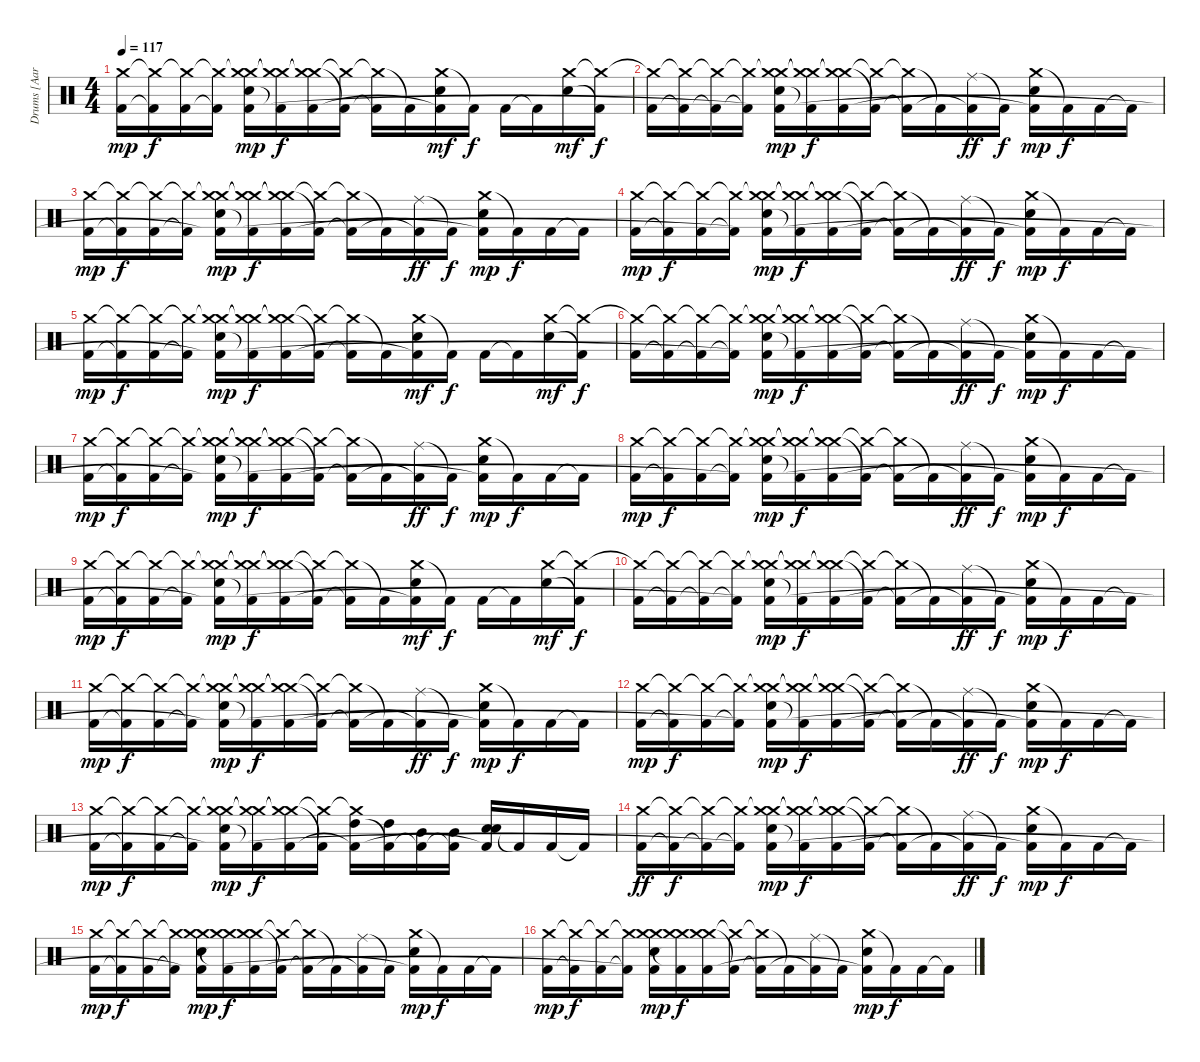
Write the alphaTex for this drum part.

\track ("Drums [Aaron Harris]" "Drums [Aar") {instrument percussion}
\staff {score}
\articulation defaults
\ts (4 4)
\tempo 117
\clef neutral
\ks c
("Crash medium (hit)" "Kick (hit) 2").16{dy mp} ("Crash medium (hit)"{t} "Kick (hit) 2"{t}).16{dy f} ("Crash medium (hit)"{t} "Kick (hit) 2").16 ("Crash medium (hit)"{t} "Kick (hit) 2"{t}).16 ("Crash medium (hit)"{t} "Crash medium (hit)" "Electric Snare (hit)" "Kick (hit) 2"{t}).16{dy mp} ("Crash medium (hit)"{t} "Crash medium (hit)"{t} "Kick (hit) 2"{t}).16{dy f} ("Crash medium (hit)"{t} "Crash medium (hit)"{t} "Kick (hit) 2").16 ("Crash medium (hit)"{t} "Kick (hit) 2"{t}).16 ("Crash medium (hit)"{t} "Kick (hit) 2"{t}).16 "Kick (hit) 2"{t}.16 ("Crash medium (hit)" "Electric Snare (hit)" "Kick (hit) 2"{t}).16{dy mf} "Kick (hit) 2"{t}.16{dy f} "Kick (hit) 2".16 "Kick (hit) 2"{t}.16 ("Crash medium (hit)" "Electric Snare (hit)").16{dy mf} ("Crash medium (hit)"{t} "Kick (hit) 2"{t}).16{dy f} |
("Crash medium (hit)"{t} "Kick (hit) 2").16 ("Crash medium (hit)"{t} "Kick (hit) 2"{t}).16 ("Crash medium (hit)"{t} "Kick (hit) 2"{t}).16 ("Crash medium (hit)"{t} "Kick (hit) 2"{t}).16 ("Crash medium (hit)"{t} "Crash medium (hit)" "Electric Snare (hit)" "Kick (hit) 2"{t}).16{dy mp} ("Crash medium (hit)"{t} "Crash medium (hit)"{t} "Kick (hit) 2"{t}).16{dy f} ("Crash medium (hit)"{t} "Crash medium (hit)"{t} "Kick (hit) 2").16 ("Crash medium (hit)"{t} "Kick (hit) 2"{t}).16 ("Crash medium (hit)"{t} "Kick (hit) 2"{t}).16 "Kick (hit) 2"{t}.16 ("Ride (middle)" "Kick (hit) 2"{t}).16{dy ff} "Kick (hit) 2"{t}.16{dy f} ("Crash medium (hit)" "Electric Snare (hit)" "Kick (hit) 2"{t}).16{dy mp} "Kick (hit) 2"{t}.16{dy f} "Kick (hit) 2".16 "Kick (hit) 2"{t}.16 |
("Crash medium (hit)" "Kick (hit) 2").16{dy mp} ("Crash medium (hit)"{t} "Kick (hit) 2"{t}).16{dy f} ("Crash medium (hit)"{t} "Kick (hit) 2").16 ("Crash medium (hit)"{t} "Kick (hit) 2"{t}).16 ("Crash medium (hit)"{t} "Crash medium (hit)" "Electric Snare (hit)" "Kick (hit) 2"{t}).16{dy mp} ("Crash medium (hit)"{t} "Crash medium (hit)"{t} "Kick (hit) 2"{t}).16{dy f} ("Crash medium (hit)"{t} "Crash medium (hit)"{t} "Kick (hit) 2").16 ("Crash medium (hit)"{t} "Kick (hit) 2"{t}).16 ("Crash medium (hit)"{t} "Kick (hit) 2"{t}).16 "Kick (hit) 2"{t}.16 ("Ride (middle)" "Kick (hit) 2"{t}).16{dy ff} "Kick (hit) 2"{t}.16{dy f} ("Crash medium (hit)" "Electric Snare (hit)" "Kick (hit) 2"{t}).16{dy mp} "Kick (hit) 2"{t}.16{dy f} "Kick (hit) 2".16 "Kick (hit) 2"{t}.16 |
("Crash medium (hit)" "Kick (hit) 2").16{dy mp} ("Crash medium (hit)"{t} "Kick (hit) 2"{t}).16{dy f} ("Crash medium (hit)"{t} "Kick (hit) 2").16 ("Crash medium (hit)"{t} "Kick (hit) 2"{t}).16 ("Crash medium (hit)"{t} "Crash medium (hit)" "Electric Snare (hit)" "Kick (hit) 2"{t}).16{dy mp} ("Crash medium (hit)"{t} "Crash medium (hit)"{t} "Kick (hit) 2"{t}).16{dy f} ("Crash medium (hit)"{t} "Crash medium (hit)"{t} "Kick (hit) 2").16 ("Crash medium (hit)"{t} "Kick (hit) 2"{t}).16 ("Crash medium (hit)"{t} "Kick (hit) 2"{t}).16 "Kick (hit) 2"{t}.16 ("Ride (middle)" "Kick (hit) 2"{t}).16{dy ff} "Kick (hit) 2"{t}.16{dy f} ("Crash medium (hit)" "Electric Snare (hit)" "Kick (hit) 2"{t}).16{dy mp} "Kick (hit) 2"{t}.16{dy f} "Kick (hit) 2".16 "Kick (hit) 2"{t}.16 |
("Crash medium (hit)" "Kick (hit) 2").16{dy mp} ("Crash medium (hit)"{t} "Kick (hit) 2"{t}).16{dy f} ("Crash medium (hit)"{t} "Kick (hit) 2").16 ("Crash medium (hit)"{t} "Kick (hit) 2"{t}).16 ("Crash medium (hit)"{t} "Crash medium (hit)" "Electric Snare (hit)" "Kick (hit) 2"{t}).16{dy mp} ("Crash medium (hit)"{t} "Crash medium (hit)"{t} "Kick (hit) 2"{t}).16{dy f} ("Crash medium (hit)"{t} "Crash medium (hit)"{t} "Kick (hit) 2").16 ("Crash medium (hit)"{t} "Kick (hit) 2"{t}).16 ("Crash medium (hit)"{t} "Kick (hit) 2"{t}).16 "Kick (hit) 2"{t}.16 ("Crash medium (hit)" "Electric Snare (hit)" "Kick (hit) 2"{t}).16{dy mf} "Kick (hit) 2"{t}.16{dy f} "Kick (hit) 2".16 "Kick (hit) 2"{t}.16 ("Crash medium (hit)" "Electric Snare (hit)").16{dy mf} ("Crash medium (hit)"{t} "Kick (hit) 2"{t}).16{dy f} |
("Crash medium (hit)"{t} "Kick (hit) 2").16 ("Crash medium (hit)"{t} "Kick (hit) 2"{t}).16 ("Crash medium (hit)"{t} "Kick (hit) 2"{t}).16 ("Crash medium (hit)"{t} "Kick (hit) 2"{t}).16 ("Crash medium (hit)"{t} "Crash medium (hit)" "Electric Snare (hit)" "Kick (hit) 2"{t}).16{dy mp} ("Crash medium (hit)"{t} "Crash medium (hit)"{t} "Kick (hit) 2"{t}).16{dy f} ("Crash medium (hit)"{t} "Crash medium (hit)"{t} "Kick (hit) 2").16 ("Crash medium (hit)"{t} "Kick (hit) 2"{t}).16 ("Crash medium (hit)"{t} "Kick (hit) 2"{t}).16 "Kick (hit) 2"{t}.16 ("Ride (middle)" "Kick (hit) 2"{t}).16{dy ff} "Kick (hit) 2"{t}.16{dy f} ("Crash medium (hit)" "Electric Snare (hit)" "Kick (hit) 2"{t}).16{dy mp} "Kick (hit) 2"{t}.16{dy f} "Kick (hit) 2".16 "Kick (hit) 2"{t}.16 |
("Crash medium (hit)" "Kick (hit) 2").16{dy mp} ("Crash medium (hit)"{t} "Kick (hit) 2"{t}).16{dy f} ("Crash medium (hit)"{t} "Kick (hit) 2").16 ("Crash medium (hit)"{t} "Kick (hit) 2"{t}).16 ("Crash medium (hit)"{t} "Crash medium (hit)" "Electric Snare (hit)" "Kick (hit) 2"{t}).16{dy mp} ("Crash medium (hit)"{t} "Crash medium (hit)"{t} "Kick (hit) 2"{t}).16{dy f} ("Crash medium (hit)"{t} "Crash medium (hit)"{t} "Kick (hit) 2").16 ("Crash medium (hit)"{t} "Kick (hit) 2"{t}).16 ("Crash medium (hit)"{t} "Kick (hit) 2"{t}).16 "Kick (hit) 2"{t}.16 ("Ride (middle)" "Kick (hit) 2"{t}).16{dy ff} "Kick (hit) 2"{t}.16{dy f} ("Crash medium (hit)" "Electric Snare (hit)" "Kick (hit) 2"{t}).16{dy mp} "Kick (hit) 2"{t}.16{dy f} "Kick (hit) 2".16 "Kick (hit) 2"{t}.16 |
("Crash medium (hit)" "Kick (hit) 2").16{dy mp} ("Crash medium (hit)"{t} "Kick (hit) 2"{t}).16{dy f} ("Crash medium (hit)"{t} "Kick (hit) 2").16 ("Crash medium (hit)"{t} "Kick (hit) 2"{t}).16 ("Crash medium (hit)"{t} "Crash medium (hit)" "Electric Snare (hit)" "Kick (hit) 2"{t}).16{dy mp} ("Crash medium (hit)"{t} "Crash medium (hit)"{t} "Kick (hit) 2"{t}).16{dy f} ("Crash medium (hit)"{t} "Crash medium (hit)"{t} "Kick (hit) 2").16 ("Crash medium (hit)"{t} "Kick (hit) 2"{t}).16 ("Crash medium (hit)"{t} "Kick (hit) 2"{t}).16 "Kick (hit) 2"{t}.16 ("Ride (middle)" "Kick (hit) 2"{t}).16{dy ff} "Kick (hit) 2"{t}.16{dy f} ("Crash medium (hit)" "Electric Snare (hit)" "Kick (hit) 2"{t}).16{dy mp} "Kick (hit) 2"{t}.16{dy f} "Kick (hit) 2".16 "Kick (hit) 2"{t}.16 |
("Crash medium (hit)" "Kick (hit) 2").16{dy mp} ("Crash medium (hit)"{t} "Kick (hit) 2"{t}).16{dy f} ("Crash medium (hit)"{t} "Kick (hit) 2").16 ("Crash medium (hit)"{t} "Kick (hit) 2"{t}).16 ("Crash medium (hit)"{t} "Crash medium (hit)" "Electric Snare (hit)" "Kick (hit) 2"{t}).16{dy mp} ("Crash medium (hit)"{t} "Crash medium (hit)"{t} "Kick (hit) 2"{t}).16{dy f} ("Crash medium (hit)"{t} "Crash medium (hit)"{t} "Kick (hit) 2").16 ("Crash medium (hit)"{t} "Kick (hit) 2"{t}).16 ("Crash medium (hit)"{t} "Kick (hit) 2"{t}).16 "Kick (hit) 2"{t}.16 ("Crash medium (hit)" "Electric Snare (hit)" "Kick (hit) 2"{t}).16{dy mf} "Kick (hit) 2"{t}.16{dy f} "Kick (hit) 2".16 "Kick (hit) 2"{t}.16 ("Crash medium (hit)" "Electric Snare (hit)").16{dy mf} ("Crash medium (hit)"{t} "Kick (hit) 2"{t}).16{dy f} |
("Crash medium (hit)"{t} "Kick (hit) 2").16 ("Crash medium (hit)"{t} "Kick (hit) 2"{t}).16 ("Crash medium (hit)"{t} "Kick (hit) 2"{t}).16 ("Crash medium (hit)"{t} "Kick (hit) 2"{t}).16 ("Crash medium (hit)"{t} "Crash medium (hit)" "Electric Snare (hit)" "Kick (hit) 2"{t}).16{dy mp} ("Crash medium (hit)"{t} "Crash medium (hit)"{t} "Kick (hit) 2"{t}).16{dy f} ("Crash medium (hit)"{t} "Crash medium (hit)"{t} "Kick (hit) 2").16 ("Crash medium (hit)"{t} "Kick (hit) 2"{t}).16 ("Crash medium (hit)"{t} "Kick (hit) 2"{t}).16 "Kick (hit) 2"{t}.16 ("Ride (middle)" "Kick (hit) 2"{t}).16{dy ff} "Kick (hit) 2"{t}.16{dy f} ("Crash medium (hit)" "Electric Snare (hit)" "Kick (hit) 2"{t}).16{dy mp} "Kick (hit) 2"{t}.16{dy f} "Kick (hit) 2".16 "Kick (hit) 2"{t}.16 |
("Crash medium (hit)" "Kick (hit) 2").16{dy mp} ("Crash medium (hit)"{t} "Kick (hit) 2"{t}).16{dy f} ("Crash medium (hit)"{t} "Kick (hit) 2").16 ("Crash medium (hit)"{t} "Kick (hit) 2"{t}).16 ("Crash medium (hit)"{t} "Crash medium (hit)" "Electric Snare (hit)" "Kick (hit) 2"{t}).16{dy mp} ("Crash medium (hit)"{t} "Crash medium (hit)"{t} "Kick (hit) 2"{t}).16{dy f} ("Crash medium (hit)"{t} "Crash medium (hit)"{t} "Kick (hit) 2").16 ("Crash medium (hit)"{t} "Kick (hit) 2"{t}).16 ("Crash medium (hit)"{t} "Kick (hit) 2"{t}).16 "Kick (hit) 2"{t}.16 ("Ride (middle)" "Kick (hit) 2"{t}).16{dy ff} "Kick (hit) 2"{t}.16{dy f} ("Crash medium (hit)" "Electric Snare (hit)" "Kick (hit) 2"{t}).16{dy mp} "Kick (hit) 2"{t}.16{dy f} "Kick (hit) 2".16 "Kick (hit) 2"{t}.16 |
("Crash medium (hit)" "Kick (hit) 2").16{dy mp} ("Crash medium (hit)"{t} "Kick (hit) 2"{t}).16{dy f} ("Crash medium (hit)"{t} "Kick (hit) 2").16 ("Crash medium (hit)"{t} "Kick (hit) 2"{t}).16 ("Crash medium (hit)"{t} "Crash medium (hit)" "Electric Snare (hit)" "Kick (hit) 2"{t}).16{dy mp} ("Crash medium (hit)"{t} "Crash medium (hit)"{t} "Kick (hit) 2"{t}).16{dy f} ("Crash medium (hit)"{t} "Crash medium (hit)"{t} "Kick (hit) 2").16 ("Crash medium (hit)"{t} "Kick (hit) 2"{t}).16 ("Crash medium (hit)"{t} "Kick (hit) 2"{t}).16 "Kick (hit) 2"{t}.16 ("Ride (middle)" "Kick (hit) 2"{t}).16{dy ff} "Kick (hit) 2"{t}.16{dy f} ("Crash medium (hit)" "Electric Snare (hit)" "Kick (hit) 2"{t}).16{dy mp} "Kick (hit) 2"{t}.16{dy f} "Kick (hit) 2".16 "Kick (hit) 2"{t}.16 |
("Crash medium (hit)" "Kick (hit) 2").16{dy mp} ("Crash medium (hit)"{t} "Kick (hit) 2"{t}).16{dy f} ("Crash medium (hit)"{t} "Kick (hit) 2").16 ("Crash medium (hit)"{t} "Kick (hit) 2"{t}).16 ("Crash medium (hit)"{t} "Crash medium (hit)" "Electric Snare (hit)" "Kick (hit) 2"{t}).16{dy mp} ("Crash medium (hit)"{t} "Crash medium (hit)"{t} "Kick (hit) 2"{t}).16{dy f} ("Crash medium (hit)"{t} "Crash medium (hit)"{t} "Kick (hit) 2").16 ("Crash medium (hit)"{t} "Kick (hit) 2"{t}).16 ("Crash medium (hit)"{t} "High Tom (hit)" "Kick (hit) 2"{t}).16 ("High Tom (hit)" "Kick (hit) 2"{t}).16 ("Mid Tom (hit)" "Kick (hit) 2"{t}).16 ("Mid Tom (hit)" "Kick (hit) 2"{t}).16 ("Electric Snare (hit)" "Electric Snare (hit)" "Kick (hit) 2"{t}).16 "Kick (hit) 2"{t}.16 "Kick (hit) 2".16 "Kick (hit) 2"{t}.16 |
("Crash medium (hit)" "Kick (hit) 2").16{dy ff} ("Crash medium (hit)"{t} "Kick (hit) 2"{t}).16{dy f} ("Crash medium (hit)"{t} "Kick (hit) 2"{t}).16 ("Crash medium (hit)"{t} "Kick (hit) 2"{t}).16 ("Crash medium (hit)"{t} "Crash medium (hit)" "Electric Snare (hit)" "Kick (hit) 2"{t}).16{dy mp} ("Crash medium (hit)"{t} "Crash medium (hit)"{t} "Kick (hit) 2"{t}).16{dy f} ("Crash medium (hit)"{t} "Crash medium (hit)"{t} "Kick (hit) 2").16 ("Crash medium (hit)"{t} "Kick (hit) 2"{t}).16 ("Crash medium (hit)"{t} "Kick (hit) 2"{t}).16 "Kick (hit) 2"{t}.16 ("Ride (middle)" "Kick (hit) 2"{t}).16{dy ff} "Kick (hit) 2"{t}.16{dy f} ("Crash medium (hit)" "Electric Snare (hit)" "Kick (hit) 2"{t}).16{dy mp} "Kick (hit) 2"{t}.16{dy f} "Kick (hit) 2".16 "Kick (hit) 2"{t}.16 |
("Crash medium (hit)" "Kick (hit) 2").16{dy mp} ("Crash medium (hit)"{t} "Kick (hit) 2"{t}).16{dy f} ("Crash medium (hit)"{t} "Kick (hit) 2").16 ("Crash medium (hit)"{t} "Kick (hit) 2"{t}).16 ("Crash medium (hit)"{t} "Crash medium (hit)" "Electric Snare (hit)" "Kick (hit) 2"{t}).16{dy mp} ("Crash medium (hit)"{t} "Crash medium (hit)"{t} "Kick (hit) 2"{t}).16{dy f} ("Crash medium (hit)"{t} "Crash medium (hit)"{t} "Kick (hit) 2").16 ("Crash medium (hit)"{t} "Kick (hit) 2"{t}).16 ("Crash medium (hit)"{t} "Kick (hit) 2"{t}).16 "Kick (hit) 2"{t}.16 ("Ride (middle)" "Kick (hit) 2"{t}).16 "Kick (hit) 2"{t}.16 ("Crash medium (hit)" "Electric Snare (hit)" "Kick (hit) 2"{t}).16{dy mp} "Kick (hit) 2"{t}.16{dy f} "Kick (hit) 2".16 "Kick (hit) 2"{t}.16 |
("Crash medium (hit)" "Kick (hit) 2").16{dy mp} ("Crash medium (hit)"{t} "Kick (hit) 2"{t}).16{dy f} ("Crash medium (hit)"{t} "Kick (hit) 2").16 ("Crash medium (hit)"{t} "Kick (hit) 2"{t}).16 ("Crash medium (hit)"{t} "Crash medium (hit)" "Electric Snare (hit)" "Kick (hit) 2"{t}).16{dy mp} ("Crash medium (hit)"{t} "Crash medium (hit)"{t} "Kick (hit) 2"{t}).16{dy f} ("Crash medium (hit)"{t} "Crash medium (hit)"{t} "Kick (hit) 2").16 ("Crash medium (hit)"{t} "Kick (hit) 2"{t}).16 ("Crash medium (hit)"{t} "Kick (hit) 2"{t}).16 "Kick (hit) 2"{t}.16 ("Ride (middle)" "Kick (hit) 2"{t}).16 "Kick (hit) 2"{t}.16 ("Crash medium (hit)" "Electric Snare (hit)" "Kick (hit) 2"{t}).16{dy mp} "Kick (hit) 2"{t}.16{dy f} "Kick (hit) 2".16 "Kick (hit) 2"{t}.16
